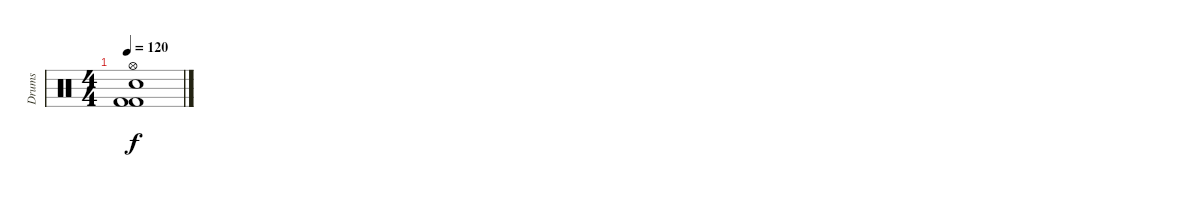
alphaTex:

\track ("Drums" "Drums") {instrument percussion}
\staff {score}
\articulation defaults
\ts (4 4)
\tempo 120
\clef neutral
\ks c
("Hi-Hat (open)" "Snare (hit) 2" "Kick (hit) 2" "Kick (hit) 2").1{dy f}
